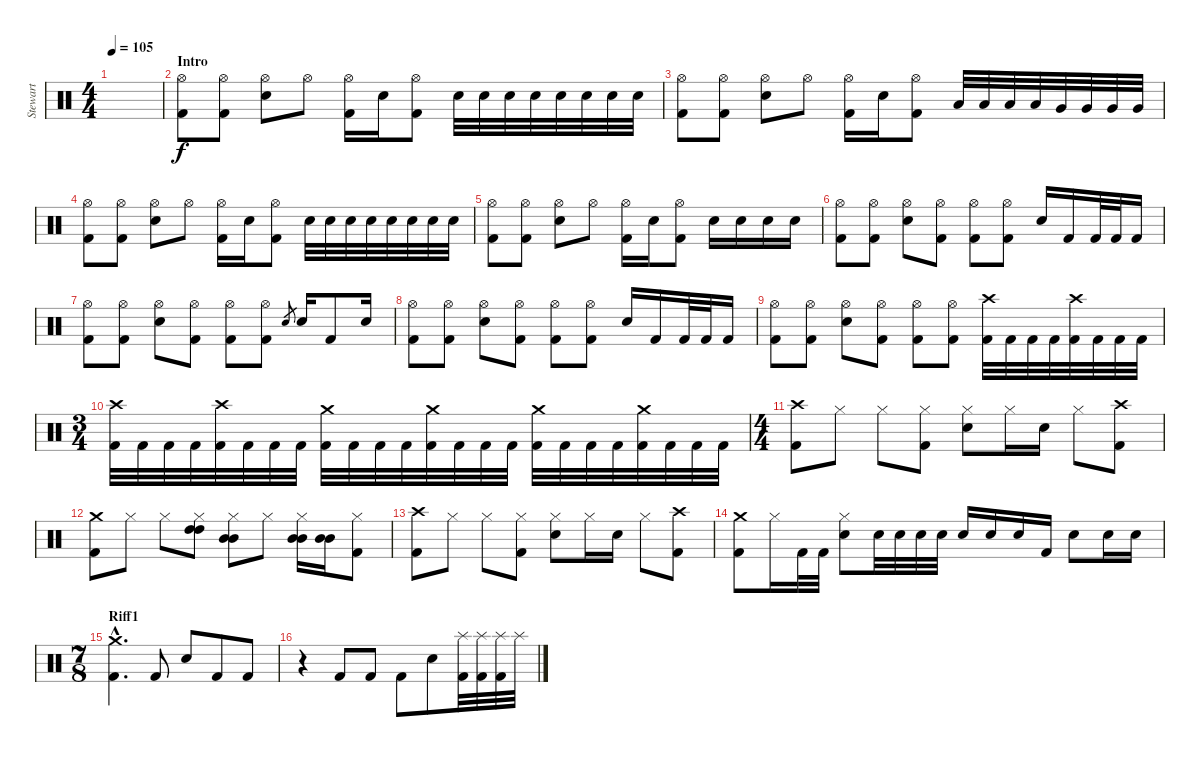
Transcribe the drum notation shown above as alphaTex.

\track ("Stewart" "Stewart") {instrument percussion}
\staff {score}
\articulation defaults
\ts (4 4)
\tempo 105
\clef neutral
\ks c
|
\section ("" "Intro")
("Hi-Hat (open)" "Kick (hit) 2").8 ("Hi-Hat (open)" "Kick (hit) 2").8 ("Hi-Hat (open)" "Electric Snare (hit)").8 "Hi-Hat (open)".8 ("Hi-Hat (open)" "Kick (hit) 2").16 "Electric Snare (hit)".16 ("Hi-Hat (open)" "Kick (hit) 2").8 "Electric Snare (hit)".32 "Electric Snare (hit)".32 "Electric Snare (hit)".32 "Electric Snare (hit)".32 "Electric Snare (hit)".32 "Electric Snare (hit)".32 "Electric Snare (hit)".32 "Electric Snare (hit)".32 |
("Hi-Hat (open)" "Kick (hit) 2").8 ("Hi-Hat (open)" "Kick (hit) 2").8 ("Hi-Hat (open)" "Electric Snare (hit)").8 "Hi-Hat (open)".8 ("Hi-Hat (open)" "Kick (hit) 2").16 "Electric Snare (hit)".16 ("Hi-Hat (open)" "Kick (hit) 2").8 "Low Tom (hit)".32 "Low Tom (hit)".32 "Low Tom (hit)".32 "Low Tom (hit)".32 "Very Low Tom (hit)".32 "Very Low Tom (hit)".32 "Very Low Tom (hit)".32 "Very Low Tom (hit)".32 |
("Hi-Hat (open)" "Kick (hit) 2").8 ("Hi-Hat (open)" "Kick (hit) 2").8 ("Hi-Hat (open)" "Electric Snare (hit)").8 "Hi-Hat (open)".8 ("Hi-Hat (open)" "Kick (hit) 2").16 "Electric Snare (hit)".16 ("Hi-Hat (open)" "Kick (hit) 2").8 "Electric Snare (hit)".32 "Electric Snare (hit)".32 "Electric Snare (hit)".32 "Electric Snare (hit)".32 "Electric Snare (hit)".32 "Electric Snare (hit)".32 "Electric Snare (hit)".32 "Electric Snare (hit)".32 |
("Hi-Hat (open)" "Kick (hit) 2").8 ("Hi-Hat (open)" "Kick (hit) 2").8 ("Hi-Hat (open)" "Electric Snare (hit)").8 "Hi-Hat (open)".8 ("Hi-Hat (open)" "Kick (hit) 2").16 "Electric Snare (hit)".16 ("Hi-Hat (open)" "Kick (hit) 2").8 "Electric Snare (hit)".16 "Electric Snare (hit)".16 "Electric Snare (hit)".16 "Electric Snare (hit)".16 |
("Hi-Hat (open)" "Kick (hit) 2").8 ("Hi-Hat (open)" "Kick (hit) 2").8 ("Hi-Hat (open)" "Electric Snare (hit)").8 ("Hi-Hat (open)" "Kick (hit) 2").8 ("Hi-Hat (open)" "Kick (hit) 2").8 ("Hi-Hat (open)" "Kick (hit) 2").8 "Electric Snare (hit)".16 "Kick (hit) 2".16 "Kick (hit) 2".32 "Kick (hit) 2".32 "Kick (hit) 2".16 |
("Hi-Hat (open)" "Kick (hit) 2").8 ("Hi-Hat (open)" "Kick (hit) 2").8 ("Hi-Hat (open)" "Electric Snare (hit)").8 ("Hi-Hat (open)" "Kick (hit) 2").8 ("Hi-Hat (open)" "Kick (hit) 2").8 ("Hi-Hat (open)" "Kick (hit) 2").8 "Electric Snare (hit)".8{gr} "Electric Snare (hit)".16 "Kick (hit) 2".8 "Electric Snare (hit)".16 |
("Hi-Hat (open)" "Kick (hit) 2").8 ("Hi-Hat (open)" "Kick (hit) 2").8 ("Hi-Hat (open)" "Electric Snare (hit)").8 ("Hi-Hat (open)" "Kick (hit) 2").8 ("Hi-Hat (open)" "Kick (hit) 2").8 ("Hi-Hat (open)" "Kick (hit) 2").8 "Electric Snare (hit)".16 "Kick (hit) 2".16 "Kick (hit) 2".32 "Kick (hit) 2".32 "Kick (hit) 2".16 |
("Hi-Hat (open)" "Kick (hit) 2").8 ("Hi-Hat (open)" "Kick (hit) 2").8 ("Hi-Hat (open)" "Electric Snare (hit)").8 ("Hi-Hat (open)" "Kick (hit) 2").8 ("Hi-Hat (open)" "Kick (hit) 2").8 ("Hi-Hat (open)" "Kick (hit) 2").8 ("Crash high (hit)" "Kick (hit) 2").32 "Kick (hit) 2".32 "Kick (hit) 2".32 "Kick (hit) 2".32 ("Crash high (hit)" "Kick (hit) 2").32 "Kick (hit) 2".32 "Kick (hit) 2".32 "Kick (hit) 2".32 |
\ts (3 4)
("Crash high (hit)" "Kick (hit) 2").32 "Kick (hit) 2".32 "Kick (hit) 2".32 "Kick (hit) 2".32 ("Crash high (hit)" "Kick (hit) 2").32 "Kick (hit) 2".32 "Kick (hit) 2".32 "Kick (hit) 2".32 ("Crash medium (hit)" "Kick (hit) 2").32 "Kick (hit) 2".32 "Kick (hit) 2".32 "Kick (hit) 2".32 ("Crash medium (hit)" "Kick (hit) 2").32 "Kick (hit) 2".32 "Kick (hit) 2".32 "Kick (hit) 2".32 ("Crash medium (hit)" "Kick (hit) 2").32 "Kick (hit) 2".32 "Kick (hit) 2".32 "Kick (hit) 2".32 ("Crash medium (hit)" "Kick (hit) 2").32 "Kick (hit) 2".32 "Kick (hit) 2".32 "Kick (hit) 2".32 |
\ts (4 4)
("Crash high (hit)" "Kick (hit) 2").8 "Hi-Hat (closed)".8 "Hi-Hat (closed)".8 ("Hi-Hat (closed)" "Kick (hit) 2").8 ("Hi-Hat (closed)" "Electric Snare (hit)").8 "Hi-Hat (closed)".16 "Electric Snare (hit)".16 "Hi-Hat (closed)".8 ("Crash high (hit)" "Kick (hit) 2").8 |
("Crash medium (hit)" "Kick (hit) 2").8 "Hi-Hat (closed)".8 "Hi-Hat (closed)".8 ("Hi-Hat (closed)" "High Tom (hit)" "High Tom (hit)").8 ("Hi-Hat (closed)" "Mid Tom (hit)" "Mid Tom (hit)").8 "Hi-Hat (closed)".8 ("Hi-Hat (closed)" "Mid Tom (hit)" "Mid Tom (hit)").16 ("Mid Tom (hit)" "Mid Tom (hit)").16 ("Hi-Hat (closed)" "Kick (hit) 2").8 |
("Crash high (hit)" "Kick (hit) 2").8 "Hi-Hat (closed)".8 "Hi-Hat (closed)".8 ("Hi-Hat (closed)" "Kick (hit) 2").8 ("Hi-Hat (closed)" "Electric Snare (hit)").8 "Hi-Hat (closed)".16 "Electric Snare (hit)".16 "Hi-Hat (closed)".8 ("Crash high (hit)" "Kick (hit) 2").8 |
("Crash medium (hit)" "Kick (hit) 2").8 "Hi-Hat (closed)".16 "Kick (hit) 2".32 "Kick (hit) 2".32 ("Hi-Hat (closed)" "Electric Snare (hit)").8 "Electric Snare (hit)".32 "Electric Snare (hit)".32 "Electric Snare (hit)".32 "Electric Snare (hit)".32 "Electric Snare (hit)".16 "Electric Snare (hit)".16 "Electric Snare (hit)".16 "Kick (hit) 2".16 "Electric Snare (hit)".8 "Electric Snare (hit)".16 "Electric Snare (hit)".16 |
\ts (7 8)
\section ("" "Riff1")
("Crash medium (hit)"{hac} "Kick (hit) 2"{hac}).4{d} "Kick (hit) 2".8 "Electric Snare (hit)".8 "Kick (hit) 2".8 "Kick (hit) 2".8 |
r.4 "Kick (hit) 2".8 "Kick (hit) 2".8 "Kick (hit) 2".8 "Electric Snare (hit)".8 ("Splash (hit)" "Kick (hit) 2").32 ("Splash (hit)" "Kick (hit) 2").32 ("Splash (hit)" "Kick (hit) 2").32 "Splash (hit)".32
